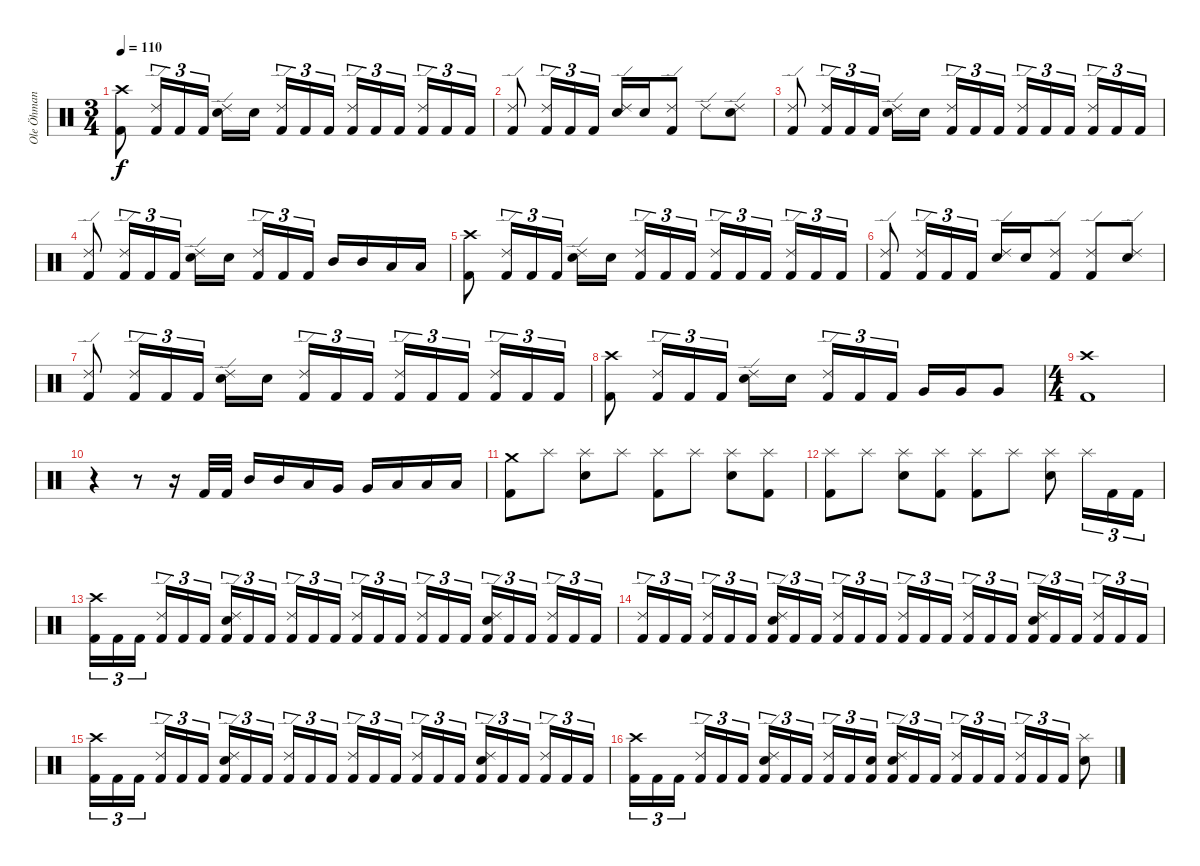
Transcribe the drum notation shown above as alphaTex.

\track ("Ole Öhman" "Ole Öhman") {instrument percussion}
\staff {score}
\articulation defaults
\ts (3 4)
\tempo 110
\clef neutral
\ks c
("Crash high (hit)" "Kick (hit) 2").8{dy f} ("Ride (edge) 2" "Kick (hit) 2").16{tu (3 2)} "Kick (hit) 2".16{tu (3 2)} "Kick (hit) 2".16{tu (3 2)} ("Ride (edge) 2" "Electric Snare (hit)").16 "Electric Snare (hit)".16{beam splitsecondary} ("Ride (edge) 2" "Kick (hit) 2").16{tu (3 2)} "Kick (hit) 2".16{tu (3 2)} "Kick (hit) 2".16{tu (3 2)} ("Ride (edge) 2" "Kick (hit) 2").16{tu (3 2)} "Kick (hit) 2".16{tu (3 2)} "Kick (hit) 2".16{tu (3 2) beam splitsecondary} ("Ride (edge) 2" "Kick (hit) 2").16{tu (3 2)} "Kick (hit) 2".16{tu (3 2)} "Kick (hit) 2".16{tu (3 2)} |
("Ride (edge) 2" "Kick (hit) 2").8 ("Ride (edge) 2" "Kick (hit) 2").16{tu (3 2)} "Kick (hit) 2".16{tu (3 2)} "Kick (hit) 2".16{tu (3 2)} ("Ride (edge) 2" "Electric Snare (hit)").16 "Electric Snare (hit)".16 ("Ride (edge) 2" "Kick (hit) 2").8 "Ride (edge) 2".8 ("Ride (edge) 2" "Electric Snare (hit)").8 |
("Ride (edge) 2" "Kick (hit) 2").8 ("Ride (edge) 2" "Kick (hit) 2").16{tu (3 2)} "Kick (hit) 2".16{tu (3 2)} "Kick (hit) 2".16{tu (3 2)} ("Ride (edge) 2" "Electric Snare (hit)").16 "Electric Snare (hit)".16{beam splitsecondary} ("Ride (edge) 2" "Kick (hit) 2").16{tu (3 2)} "Kick (hit) 2".16{tu (3 2)} "Kick (hit) 2".16{tu (3 2)} ("Ride (edge) 2" "Kick (hit) 2").16{tu (3 2)} "Kick (hit) 2".16{tu (3 2)} "Kick (hit) 2".16{tu (3 2) beam splitsecondary} ("Ride (edge) 2" "Kick (hit) 2").16{tu (3 2)} "Kick (hit) 2".16{tu (3 2)} "Kick (hit) 2".16{tu (3 2)} |
("Ride (edge) 2" "Kick (hit) 2").8 ("Ride (edge) 2" "Kick (hit) 2").16{tu (3 2)} "Kick (hit) 2".16{tu (3 2)} "Kick (hit) 2".16{tu (3 2)} ("Ride (edge) 2" "Electric Snare (hit)").16 "Electric Snare (hit)".16{beam splitsecondary} ("Ride (edge) 2" "Kick (hit) 2").16{tu (3 2)} "Kick (hit) 2".16{tu (3 2)} "Kick (hit) 2".16{tu (3 2)} "Mid Tom (hit)".16 "Mid Tom (hit)".16 "Low Tom (hit)".16 "Low Tom (hit)".16 |
("Crash high (hit)" "Kick (hit) 2").8 ("Ride (edge) 2" "Kick (hit) 2").16{tu (3 2)} "Kick (hit) 2".16{tu (3 2)} "Kick (hit) 2".16{tu (3 2)} ("Ride (edge) 2" "Electric Snare (hit)").16 "Electric Snare (hit)".16{beam splitsecondary} ("Ride (edge) 2" "Kick (hit) 2").16{tu (3 2)} "Kick (hit) 2".16{tu (3 2)} "Kick (hit) 2".16{tu (3 2)} ("Ride (edge) 2" "Kick (hit) 2").16{tu (3 2)} "Kick (hit) 2".16{tu (3 2)} "Kick (hit) 2".16{tu (3 2) beam splitsecondary} ("Ride (edge) 2" "Kick (hit) 2").16{tu (3 2)} "Kick (hit) 2".16{tu (3 2)} "Kick (hit) 2".16{tu (3 2)} |
("Ride (edge) 2" "Kick (hit) 2").8 ("Ride (edge) 2" "Kick (hit) 2").16{tu (3 2)} "Kick (hit) 2".16{tu (3 2)} "Kick (hit) 2".16{tu (3 2)} ("Ride (edge) 2" "Electric Snare (hit)").16 "Electric Snare (hit)".16 ("Ride (edge) 2" "Kick (hit) 2").8 ("Ride (edge) 2" "Kick (hit) 2").8 ("Ride (edge) 2" "Electric Snare (hit)").8 |
("Ride (edge) 2" "Kick (hit) 2").8 ("Ride (edge) 2" "Kick (hit) 2").16{tu (3 2)} "Kick (hit) 2".16{tu (3 2)} "Kick (hit) 2".16{tu (3 2)} ("Ride (edge) 2" "Electric Snare (hit)").16 "Electric Snare (hit)".16{beam splitsecondary} ("Ride (edge) 2" "Kick (hit) 2").16{tu (3 2)} "Kick (hit) 2".16{tu (3 2)} "Kick (hit) 2".16{tu (3 2)} ("Ride (edge) 2" "Kick (hit) 2").16{tu (3 2)} "Kick (hit) 2".16{tu (3 2)} "Kick (hit) 2".16{tu (3 2) beam splitsecondary} ("Ride (edge) 2" "Kick (hit) 2").16{tu (3 2)} "Kick (hit) 2".16{tu (3 2)} "Kick (hit) 2".16{tu (3 2)} |
("Crash high (hit)" "Kick (hit) 2").8 ("Ride (edge) 2" "Kick (hit) 2").16{tu (3 2)} "Kick (hit) 2".16{tu (3 2)} "Kick (hit) 2".16{tu (3 2)} ("Ride (edge) 2" "Electric Snare (hit)").16 "Electric Snare (hit)".16{beam splitsecondary} ("Ride (edge) 2" "Kick (hit) 2").16{tu (3 2)} "Kick (hit) 2".16{tu (3 2)} "Kick (hit) 2".16{tu (3 2)} "Very Low Tom (hit)".16 "Very Low Tom (hit)".16 "Very Low Tom (hit)".8 |
\ts (4 4)
("Crash high (hit)" "Kick (hit) 2").1 |
r.4 r.8 r.16 "Kick (hit) 2".32 "Kick (hit) 2".32 "Mid Tom (hit)".16 "Mid Tom (hit)".16 "Low Tom (hit)".16 "Very Low Tom (hit)".16 "Very Low Tom (hit)".16 "Low Floor Tom (hit)".16 "Low Floor Tom (hit)".16 "Low Floor Tom (hit)".16 |
("Crash medium (hit)" "Kick (hit) 2").8 "Splash (hit)".8 ("Splash (hit)" "Electric Snare (hit)").8 "Splash (hit)".8 ("Splash (hit)" "Kick (hit) 2").8 "Splash (hit)".8 ("Splash (hit)" "Electric Snare (hit)").8 ("Splash (hit)" "Kick (hit) 2").8 |
("Splash (hit)" "Kick (hit) 2").8 "Splash (hit)".8 ("Splash (hit)" "Electric Snare (hit)").8 ("Splash (hit)" "Kick (hit) 2").8 ("Splash (hit)" "Kick (hit) 2").8 "Splash (hit)".8 ("Splash (hit)" "Electric Snare (hit)").8 "Splash (hit)".16{tu (3 2)} "Kick (hit) 2".16{tu (3 2)} "Kick (hit) 2".16{tu (3 2)} |
("Crash high (hit)" "Kick (hit) 2").16{tu (3 2)} "Kick (hit) 2".16{tu (3 2)} "Kick (hit) 2".16{tu (3 2) beam splitsecondary} ("Ride (edge) 2" "Kick (hit) 2").16{tu (3 2)} "Kick (hit) 2".16{tu (3 2)} "Kick (hit) 2".16{tu (3 2)} ("Ride (edge) 2" "Electric Snare (hit)" "Kick (hit) 2").16{tu (3 2)} "Kick (hit) 2".16{tu (3 2)} "Kick (hit) 2".16{tu (3 2) beam splitsecondary} ("Ride (edge) 2" "Kick (hit) 2").16{tu (3 2)} "Kick (hit) 2".16{tu (3 2)} "Kick (hit) 2".16{tu (3 2)} ("Ride (edge) 2" "Kick (hit) 2").16{tu (3 2)} "Kick (hit) 2".16{tu (3 2)} "Kick (hit) 2".16{tu (3 2) beam splitsecondary} ("Ride (edge) 2" "Kick (hit) 2").16{tu (3 2)} "Kick (hit) 2".16{tu (3 2)} "Kick (hit) 2".16{tu (3 2)} ("Ride (edge) 2" "Electric Snare (hit)" "Kick (hit) 2").16{tu (3 2)} "Kick (hit) 2".16{tu (3 2)} "Kick (hit) 2".16{tu (3 2) beam splitsecondary} ("Ride (edge) 2" "Kick (hit) 2").16{tu (3 2)} "Kick (hit) 2".16{tu (3 2)} "Kick (hit) 2".16{tu (3 2)} |
("Ride (edge) 2" "Kick (hit) 2").16{tu (3 2)} "Kick (hit) 2".16{tu (3 2)} "Kick (hit) 2".16{tu (3 2) beam splitsecondary} ("Ride (edge) 2" "Kick (hit) 2").16{tu (3 2)} "Kick (hit) 2".16{tu (3 2)} "Kick (hit) 2".16{tu (3 2)} ("Ride (edge) 2" "Electric Snare (hit)" "Kick (hit) 2").16{tu (3 2)} "Kick (hit) 2".16{tu (3 2)} "Kick (hit) 2".16{tu (3 2) beam splitsecondary} ("Ride (edge) 2" "Kick (hit) 2").16{tu (3 2)} "Kick (hit) 2".16{tu (3 2)} "Kick (hit) 2".16{tu (3 2)} ("Ride (edge) 2" "Kick (hit) 2").16{tu (3 2)} "Kick (hit) 2".16{tu (3 2)} "Kick (hit) 2".16{tu (3 2) beam splitsecondary} ("Ride (edge) 2" "Kick (hit) 2").16{tu (3 2)} "Kick (hit) 2".16{tu (3 2)} "Kick (hit) 2".16{tu (3 2)} ("Ride (edge) 2" "Electric Snare (hit)" "Kick (hit) 2").16{tu (3 2)} "Kick (hit) 2".16{tu (3 2)} "Kick (hit) 2".16{tu (3 2) beam splitsecondary} ("Ride (edge) 2" "Kick (hit) 2").16{tu (3 2)} "Kick (hit) 2".16{tu (3 2)} "Kick (hit) 2".16{tu (3 2)} |
("Crash high (hit)" "Kick (hit) 2").16{tu (3 2)} "Kick (hit) 2".16{tu (3 2)} "Kick (hit) 2".16{tu (3 2) beam splitsecondary} ("Ride (edge) 2" "Kick (hit) 2").16{tu (3 2)} "Kick (hit) 2".16{tu (3 2)} "Kick (hit) 2".16{tu (3 2)} ("Ride (edge) 2" "Electric Snare (hit)" "Kick (hit) 2").16{tu (3 2)} "Kick (hit) 2".16{tu (3 2)} "Kick (hit) 2".16{tu (3 2) beam splitsecondary} ("Ride (edge) 2" "Kick (hit) 2").16{tu (3 2)} "Kick (hit) 2".16{tu (3 2)} "Kick (hit) 2".16{tu (3 2)} ("Ride (edge) 2" "Kick (hit) 2").16{tu (3 2)} "Kick (hit) 2".16{tu (3 2)} "Kick (hit) 2".16{tu (3 2) beam splitsecondary} ("Ride (edge) 2" "Kick (hit) 2").16{tu (3 2)} "Kick (hit) 2".16{tu (3 2)} "Kick (hit) 2".16{tu (3 2)} ("Ride (edge) 2" "Electric Snare (hit)" "Kick (hit) 2").16{tu (3 2)} "Kick (hit) 2".16{tu (3 2)} "Kick (hit) 2".16{tu (3 2) beam splitsecondary} ("Ride (edge) 2" "Kick (hit) 2").16{tu (3 2)} "Kick (hit) 2".16{tu (3 2)} "Kick (hit) 2".16{tu (3 2)} |
("Crash high (hit)" "Kick (hit) 2").16{tu (3 2)} "Kick (hit) 2".16{tu (3 2)} "Kick (hit) 2".16{tu (3 2) beam splitsecondary} ("Ride (edge) 2" "Kick (hit) 2").16{tu (3 2)} "Kick (hit) 2".16{tu (3 2)} "Kick (hit) 2".16{tu (3 2)} ("Ride (edge) 2" "Electric Snare (hit)" "Kick (hit) 2").16{tu (3 2)} "Kick (hit) 2".16{tu (3 2)} "Kick (hit) 2".16{tu (3 2) beam splitsecondary} ("Ride (edge) 2" "Kick (hit) 2").16{tu (3 2)} "Kick (hit) 2".16{tu (3 2)} ("Electric Snare (hit)" "Kick (hit) 2").16{tu (3 2)} ("Ride (edge) 2" "Electric Snare (hit)" "Kick (hit) 2").16{tu (3 2)} "Kick (hit) 2".16{tu (3 2)} "Kick (hit) 2".16{tu (3 2) beam splitsecondary} ("Ride (edge) 2" "Kick (hit) 2").16{tu (3 2)} "Kick (hit) 2".16{tu (3 2)} "Kick (hit) 2".16{tu (3 2)} ("Ride (edge) 2" "Kick (hit) 2").16{tu (3 2)} "Kick (hit) 2".16{tu (3 2)} "Kick (hit) 2".16{tu (3 2)} ("Splash (hit)" "Electric Snare (hit)").8
